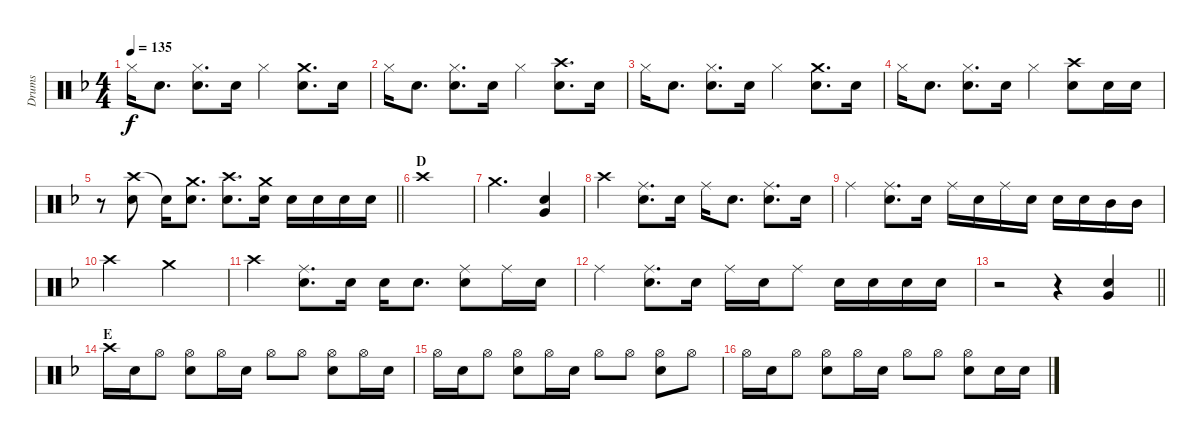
\track ("Drums" "Drums") {instrument percussion}
\staff {score}
\articulation defaults
\ts (4 4)
\tempo 135
\clef neutral
\ks f "Hi-Hat (closed)".16{dy f} "Snare (hit) 2".8{d}
("Hi-Hat (closed)" "Snare (hit) 2").8{d} "Snare (hit) 2".16 "Hi-Hat (closed)".4 ("Crash medium (hit)" "Snare (hit) 2").8{d} "Snare (hit) 2".16 |
"Hi-Hat (closed)".16 "Snare (hit) 2".8{d} ("Hi-Hat (closed)" "Snare (hit) 2").8{d} "Snare (hit) 2".16 "Hi-Hat (closed)".4 ("Crash high (hit)" "Snare (hit) 2").8{d} "Snare (hit) 2".16 |
"Hi-Hat (closed)".16 "Snare (hit) 2".8{d} ("Hi-Hat (closed)" "Snare (hit) 2").8{d} "Snare (hit) 2".16 "Hi-Hat (closed)".4 ("Crash medium (hit)" "Snare (hit) 2").8{d} "Snare (hit) 2".16 |
"Hi-Hat (closed)".16 "Snare (hit) 2".8{d} ("Hi-Hat (closed)" "Snare (hit) 2").8{d} "Snare (hit) 2".16 "Hi-Hat (closed)".4 ("Crash high (hit)" "Snare (hit) 2").8 "Snare (hit) 2".16 "Snare (hit) 2".16 |
\barLineRight lightlight
r.8 ("Crash high (hit)" "Snare (hit) 2").8 "Snare (hit)"{t}.16 ("Crash medium (hit)" "Snare (hit) 2").8{d} ("Crash high (hit)" "Snare (hit) 2").8{d} ("Crash medium (hit)" "Snare (hit) 2").16 "Snare (hit) 2".16 "Snare (hit) 2".16 "Snare (hit) 2".16 "Snare (hit) 2".16 |
\section ("" "D")
"Crash high (hit)".1 |
"Crash medium (hit)".2{d} ("Snare (hit) 2" "Very Low Tom (hit)").4 |
"Crash high (hit)".4 ("Ride (middle)" "Snare (hit) 2").8{d} "Snare (hit) 2".16 "Ride (middle)".16 "Snare (hit) 2".8{d} ("Ride (middle)" "Snare (hit) 2").8{d} "Snare (hit) 2".16 |
"Ride (middle)".4 ("Ride (middle)" "Snare (hit) 2").8{d} "Snare (hit) 2".16 "Ride (middle)".16 "Snare (hit) 2".16 "Ride (middle)".16 "Snare (hit) 2".16 "Snare (hit) 2".16 "Snare (hit) 2".16 "Mid Tom (hit)".16 "Mid Tom (hit)".16 |
"Crash high (hit)".2 "Crash medium (hit)".2 |
"Crash high (hit)".4 ("Ride (middle)" "Snare (hit) 2").8{d} "Snare (hit) 2".16 "Snare (hit) 2".16 "Snare (hit) 2".8{d} ("Ride (middle)" "Snare (hit) 2").8 "Ride (middle)".16 "Snare (hit) 2".16 |
"Ride (middle)".4 ("Ride (middle)" "Snare (hit) 2").8{d} "Snare (hit) 2".16 "Ride (middle)".16 "Snare (hit) 2".16 "Ride (middle)".8 "Snare (hit) 2".16 "Snare (hit) 2".16 "Snare (hit) 2".16 "Snare (hit) 2".16 |
\barLineRight lightlight
r.2 r.4 ("Snare (hit) 2" "Very Low Tom (hit)").4 |
\section ("" "E")
"Crash high (hit)".16 "Snare (hit) 2".16 "Hi-Hat (open)".8 ("Hi-Hat (open)" "Snare (hit) 2").8 "Hi-Hat (open)".16 "Snare (hit) 2".16 "Hi-Hat (open)".8 "Hi-Hat (open)".8 ("Hi-Hat (open)" "Snare (hit) 2").8 "Hi-Hat (open)".16 "Snare (hit) 2".16 |
"Hi-Hat (open)".16 "Snare (hit) 2".16 "Hi-Hat (open)".8 ("Hi-Hat (open)" "Snare (hit) 2").8 "Hi-Hat (open)".16 "Snare (hit) 2".16 "Hi-Hat (open)".8 "Hi-Hat (open)".8 ("Hi-Hat (open)" "Snare (hit) 2").8 "Hi-Hat (open)".8 |
"Hi-Hat (open)".16 "Snare (hit) 2".16 "Hi-Hat (open)".8 ("Hi-Hat (open)" "Snare (hit) 2").8 "Hi-Hat (open)".16 "Snare (hit) 2".16 "Hi-Hat (open)".8 "Hi-Hat (open)".8 ("Hi-Hat (open)" "Snare (hit) 2").8 "Snare (hit) 2".16 "Snare (hit) 2".16
